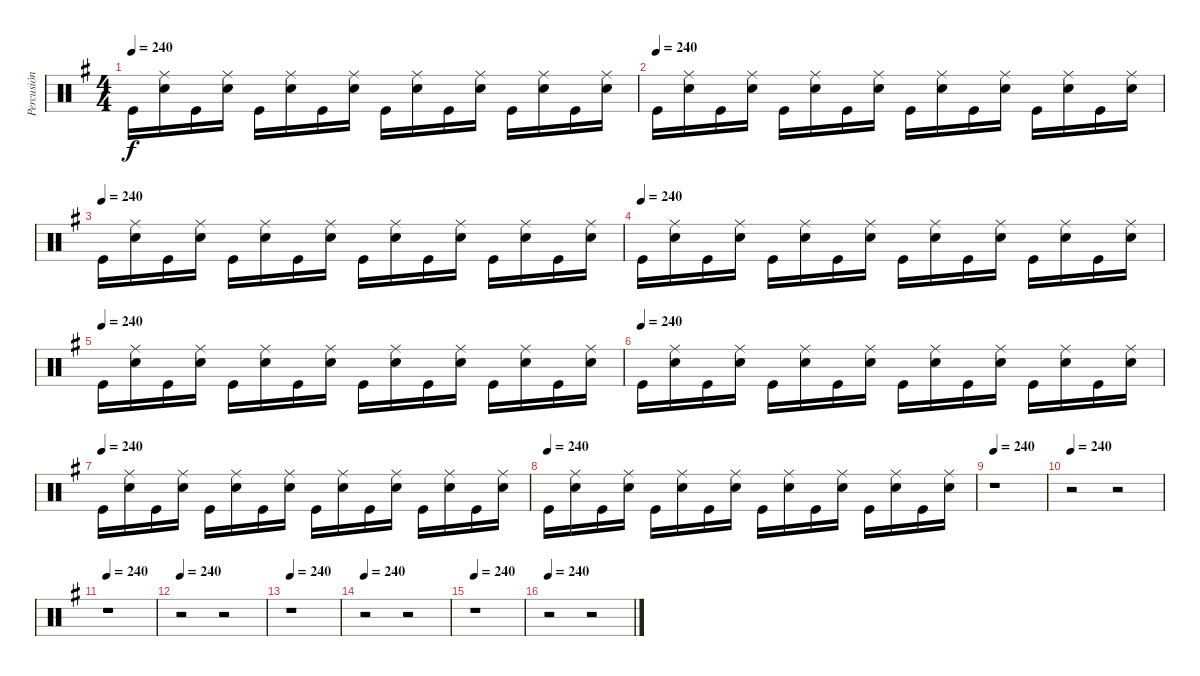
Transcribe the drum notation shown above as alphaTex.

\track ("Percusión" "Percusión") {instrument percussion}
\staff {score}
\articulation defaults
\ts (4 4)
\tempo 240
\clef neutral
\ks g "Kick (hit)".16{dy f}
("Ride (middle)" "Snare (hit) 2").16 "Kick (hit)".16 ("Ride (middle)" "Snare (hit) 2").16 "Kick (hit)".16 ("Ride (middle)" "Snare (hit) 2").16 "Kick (hit)".16 ("Ride (middle)" "Snare (hit) 2").16 "Kick (hit)".16 ("Ride (middle)" "Snare (hit) 2").16 "Kick (hit)".16 ("Ride (middle)" "Snare (hit) 2").16 "Kick (hit)".16 ("Ride (middle)" "Snare (hit) 2").16 "Kick (hit)".16 ("Ride (middle)" "Snare (hit) 2").16 |
\tempo (240)
"Kick (hit)".16 ("Ride (middle)" "Snare (hit) 2").16 "Kick (hit)".16 ("Ride (middle)" "Snare (hit) 2").16 "Kick (hit)".16 ("Ride (middle)" "Snare (hit) 2").16 "Kick (hit)".16 ("Ride (middle)" "Snare (hit) 2").16 "Kick (hit)".16 ("Ride (middle)" "Snare (hit) 2").16 "Kick (hit)".16 ("Ride (middle)" "Snare (hit) 2").16 "Kick (hit)".16 ("Ride (middle)" "Snare (hit) 2").16 "Kick (hit)".16 ("Ride (middle)" "Snare (hit) 2").16 |
\tempo (240)
"Kick (hit)".16 ("Ride (middle)" "Snare (hit) 2").16 "Kick (hit)".16 ("Ride (middle)" "Snare (hit) 2").16 "Kick (hit)".16 ("Ride (middle)" "Snare (hit) 2").16 "Kick (hit)".16 ("Ride (middle)" "Snare (hit) 2").16 "Kick (hit)".16 ("Ride (middle)" "Snare (hit) 2").16 "Kick (hit)".16 ("Ride (middle)" "Snare (hit) 2").16 "Kick (hit)".16 ("Ride (middle)" "Snare (hit) 2").16 "Kick (hit)".16 ("Ride (middle)" "Snare (hit) 2").16 |
\tempo (240)
"Kick (hit)".16 ("Ride (middle)" "Snare (hit) 2").16 "Kick (hit)".16 ("Ride (middle)" "Snare (hit) 2").16 "Kick (hit)".16 ("Ride (middle)" "Snare (hit) 2").16 "Kick (hit)".16 ("Ride (middle)" "Snare (hit) 2").16 "Kick (hit)".16 ("Ride (middle)" "Snare (hit) 2").16 "Kick (hit)".16 ("Ride (middle)" "Snare (hit) 2").16 "Kick (hit)".16 ("Ride (middle)" "Snare (hit) 2").16 "Kick (hit)".16 ("Ride (middle)" "Snare (hit) 2").16 |
\tempo (240)
"Kick (hit)".16 ("Ride (middle)" "Snare (hit) 2").16 "Kick (hit)".16 ("Ride (middle)" "Snare (hit) 2").16 "Kick (hit)".16 ("Ride (middle)" "Snare (hit) 2").16 "Kick (hit)".16 ("Ride (middle)" "Snare (hit) 2").16 "Kick (hit)".16 ("Ride (middle)" "Snare (hit) 2").16 "Kick (hit)".16 ("Ride (middle)" "Snare (hit) 2").16 "Kick (hit)".16 ("Ride (middle)" "Snare (hit) 2").16 "Kick (hit)".16 ("Ride (middle)" "Snare (hit) 2").16 |
\tempo (240)
"Kick (hit)".16 ("Ride (middle)" "Snare (hit) 2").16 "Kick (hit)".16 ("Ride (middle)" "Snare (hit) 2").16 "Kick (hit)".16 ("Ride (middle)" "Snare (hit) 2").16 "Kick (hit)".16 ("Ride (middle)" "Snare (hit) 2").16 "Kick (hit)".16 ("Ride (middle)" "Snare (hit) 2").16 "Kick (hit)".16 ("Ride (middle)" "Snare (hit) 2").16 "Kick (hit)".16 ("Ride (middle)" "Snare (hit) 2").16 "Kick (hit)".16 ("Ride (middle)" "Snare (hit) 2").16 |
\tempo (240)
"Kick (hit)".16 ("Ride (middle)" "Snare (hit) 2").16 "Kick (hit)".16 ("Ride (middle)" "Snare (hit) 2").16 "Kick (hit)".16 ("Ride (middle)" "Snare (hit) 2").16 "Kick (hit)".16 ("Ride (middle)" "Snare (hit) 2").16 "Kick (hit)".16 ("Ride (middle)" "Snare (hit) 2").16 "Kick (hit)".16 ("Ride (middle)" "Snare (hit) 2").16 "Kick (hit)".16 ("Ride (middle)" "Snare (hit) 2").16 "Kick (hit)".16 ("Ride (middle)" "Snare (hit) 2").16 |
\tempo (240)
"Kick (hit)".16 ("Ride (middle)" "Snare (hit) 2").16 "Kick (hit)".16 ("Ride (middle)" "Snare (hit) 2").16 "Kick (hit)".16 ("Ride (middle)" "Snare (hit) 2").16 "Kick (hit)".16 ("Ride (middle)" "Snare (hit) 2").16 "Kick (hit)".16 ("Ride (middle)" "Snare (hit) 2").16 "Kick (hit)".16 ("Ride (middle)" "Snare (hit) 2").16 "Kick (hit)".16 ("Ride (middle)" "Snare (hit) 2").16 "Kick (hit)".16 ("Ride (middle)" "Snare (hit) 2").16 |
\tempo 240
r.1 |
\tempo 240
r.2 r.2 |
\tempo 240
r.1 |
\tempo 240
r.2 r.2 |
\tempo 240
r.1 |
\tempo 240
r.2 r.2 |
\tempo 240
r.1 |
\tempo 240
r.2 r.2
